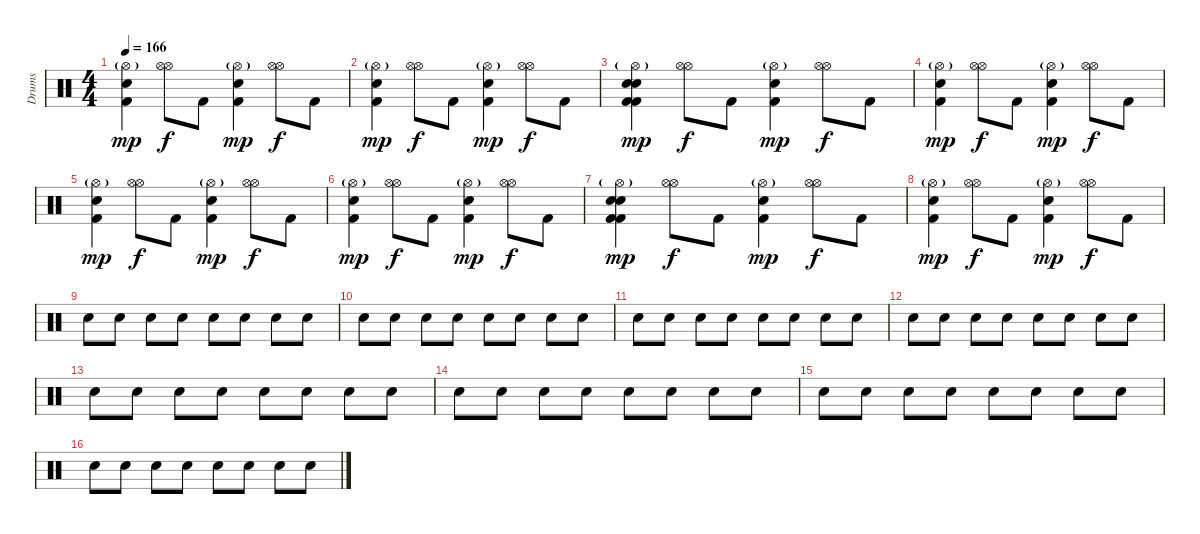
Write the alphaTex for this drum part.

\track ("Drums" "Drums") {instrument percussion}
\staff {score}
\articulation defaults
\ts (4 4)
\tempo 166
\clef neutral
\ks c
("Hi-Hat (open)"{g} "Kick (hit) 2" "Snare (hit) 2").4{dy mp} ("Hi-Hat (open)" "Hi-Hat (open)").8{dy f} "Kick (hit) 2".8 ("Hi-Hat (open)"{g} "Kick (hit) 2" "Snare (hit) 2").4{dy mp} ("Hi-Hat (open)" "Hi-Hat (open)").8{dy f} "Kick (hit) 2".8 |
("Hi-Hat (open)"{g} "Kick (hit) 2" "Snare (hit) 2").4{dy mp} ("Hi-Hat (open)" "Hi-Hat (open)").8{dy f} "Kick (hit) 2".8 ("Hi-Hat (open)"{g} "Kick (hit) 2" "Snare (hit) 2").4{dy mp} ("Hi-Hat (open)" "Hi-Hat (open)").8{dy f} "Kick (hit) 2".8 |
("Kick (hit) 2" "Electric Snare (hit)" "Hi-Hat (open)"{g} "Kick (hit) 2" "Snare (hit) 2").4{dy mp} ("Hi-Hat (open)" "Hi-Hat (open)").8{dy f} "Kick (hit) 2".8 ("Hi-Hat (open)"{g} "Kick (hit) 2" "Snare (hit) 2").4{dy mp} ("Hi-Hat (open)" "Hi-Hat (open)").8{dy f} "Kick (hit) 2".8 |
("Hi-Hat (open)"{g} "Kick (hit) 2" "Snare (hit) 2").4{dy mp} ("Hi-Hat (open)" "Hi-Hat (open)").8{dy f} "Kick (hit) 2".8 ("Hi-Hat (open)"{g} "Kick (hit) 2" "Snare (hit) 2").4{dy mp} ("Hi-Hat (open)" "Hi-Hat (open)").8{dy f} "Kick (hit) 2".8 |
("Hi-Hat (open)"{g} "Kick (hit) 2" "Snare (hit) 2").4{dy mp} ("Hi-Hat (open)" "Hi-Hat (open)").8{dy f} "Kick (hit) 2".8 ("Hi-Hat (open)"{g} "Kick (hit) 2" "Snare (hit) 2").4{dy mp} ("Hi-Hat (open)" "Hi-Hat (open)").8{dy f} "Kick (hit) 2".8 |
("Hi-Hat (open)"{g} "Kick (hit) 2" "Snare (hit) 2").4{dy mp} ("Hi-Hat (open)" "Hi-Hat (open)").8{dy f} "Kick (hit) 2".8 ("Hi-Hat (open)"{g} "Kick (hit) 2" "Snare (hit) 2").4{dy mp} ("Hi-Hat (open)" "Hi-Hat (open)").8{dy f} "Kick (hit) 2".8 |
("Kick (hit) 2" "Electric Snare (hit)" "Hi-Hat (open)"{g} "Kick (hit) 2" "Snare (hit) 2").4{dy mp} ("Hi-Hat (open)" "Hi-Hat (open)").8{dy f} "Kick (hit) 2".8 ("Hi-Hat (open)"{g} "Kick (hit) 2" "Snare (hit) 2").4{dy mp} ("Hi-Hat (open)" "Hi-Hat (open)").8{dy f} "Kick (hit) 2".8 |
("Hi-Hat (open)"{g} "Kick (hit) 2" "Snare (hit) 2").4{dy mp} ("Hi-Hat (open)" "Hi-Hat (open)").8{dy f} "Kick (hit) 2".8 ("Hi-Hat (open)"{g} "Kick (hit) 2" "Snare (hit) 2").4{dy mp} ("Hi-Hat (open)" "Hi-Hat (open)").8{dy f} "Kick (hit) 2".8 |
"Snare (hit) 2".8{volume 4} "Snare (hit) 2".8{volume 10} "Snare (hit) 2".8 "Snare (hit) 2".8 "Snare (hit) 2".8 "Snare (hit) 2".8 "Snare (hit) 2".8 "Snare (hit) 2".8 |
"Snare (hit) 2".8 "Snare (hit) 2".8 "Snare (hit) 2".8 "Snare (hit) 2".8 "Snare (hit) 2".8 "Snare (hit) 2".8 "Snare (hit) 2".8 "Snare (hit) 2".8 |
"Snare (hit) 2".8 "Snare (hit) 2".8 "Snare (hit) 2".8 "Snare (hit) 2".8 "Snare (hit) 2".8 "Snare (hit) 2".8 "Snare (hit) 2".8 "Snare (hit) 2".8 |
"Snare (hit) 2".8 "Snare (hit) 2".8 "Snare (hit) 2".8 "Snare (hit) 2".8 "Snare (hit) 2".8 "Snare (hit) 2".8 "Snare (hit) 2".8 "Snare (hit) 2".8 |
"Snare (hit) 2".8 "Snare (hit) 2".8 "Snare (hit) 2".8 "Snare (hit) 2".8 "Snare (hit) 2".8 "Snare (hit) 2".8 "Snare (hit) 2".8 "Snare (hit) 2".8 |
"Snare (hit) 2".8 "Snare (hit) 2".8 "Snare (hit) 2".8 "Snare (hit) 2".8 "Snare (hit) 2".8 "Snare (hit) 2".8 "Snare (hit) 2".8 "Snare (hit) 2".8 |
"Snare (hit) 2".8 "Snare (hit) 2".8 "Snare (hit) 2".8 "Snare (hit) 2".8 "Snare (hit) 2".8 "Snare (hit) 2".8 "Snare (hit) 2".8 "Snare (hit) 2".8 |
"Snare (hit) 2".8 "Snare (hit) 2".8 "Snare (hit) 2".8 "Snare (hit) 2".8 "Snare (hit) 2".8 "Snare (hit) 2".8 "Snare (hit) 2".8 "Snare (hit) 2".8
